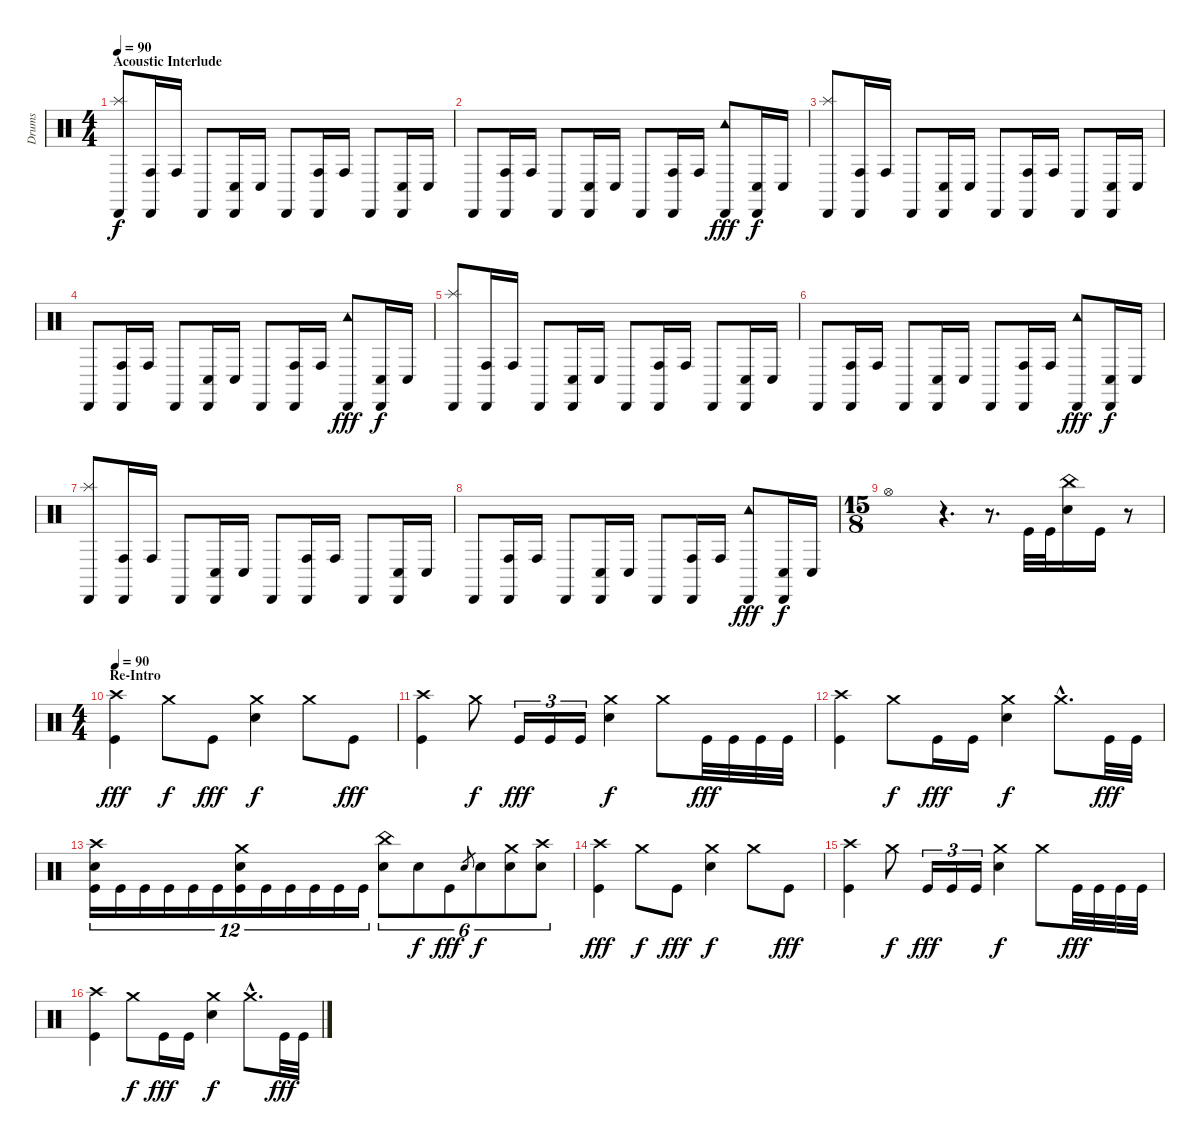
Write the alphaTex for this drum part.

\track ("Drums" "Drums") {instrument percussion}
\staff {score}
\articulation defaults
\ts (4 4)
\section ("" "Acoustic Interlude")
\tempo 90
\clef neutral
\ks c
("Cabasa (hit)" "Splash (hit)").8{dy f} ("Cabasa (hit)" "Conga high (hit)").16 "Conga high (hit)".16 "Cabasa (hit)".8 ("Cabasa (hit)" "Conga low (hit)").16 "Conga low (hit)".16 "Cabasa (hit)".8 ("Cabasa (hit)" "Conga high (hit)").16 "Conga high (hit)".16 "Cabasa (hit)".8 ("Cabasa (hit)" "Conga low (hit)").16 "Conga low (hit)".16 |
"Cabasa (hit)".8 ("Cabasa (hit)" "Conga high (hit)").16 "Conga high (hit)".16 "Cabasa (hit)".8 ("Cabasa (hit)" "Conga low (hit)").16 "Conga low (hit)".16 "Cabasa (hit)".8 ("Cabasa (hit)" "Conga high (hit)").16 "Conga high (hit)".16 ("Cabasa (hit)" "Tambourine (hit)").8{dy fff} ("Cabasa (hit)" "Conga low (hit)").16{dy f} "Conga low (hit)".16 |
("Cabasa (hit)" "Splash (hit)").8 ("Cabasa (hit)" "Conga high (hit)").16 "Conga high (hit)".16 "Cabasa (hit)".8 ("Cabasa (hit)" "Conga low (hit)").16 "Conga low (hit)".16 "Cabasa (hit)".8 ("Cabasa (hit)" "Conga high (hit)").16 "Conga high (hit)".16 "Cabasa (hit)".8 ("Cabasa (hit)" "Conga low (hit)").16 "Conga low (hit)".16 |
"Cabasa (hit)".8 ("Cabasa (hit)" "Conga high (hit)").16 "Conga high (hit)".16 "Cabasa (hit)".8 ("Cabasa (hit)" "Conga low (hit)").16 "Conga low (hit)".16 "Cabasa (hit)".8 ("Cabasa (hit)" "Conga high (hit)").16 "Conga high (hit)".16 ("Cabasa (hit)" "Tambourine (hit)").8{dy fff} ("Cabasa (hit)" "Conga low (hit)").16{dy f} "Conga low (hit)".16 |
("Cabasa (hit)" "Splash (hit)").8 ("Cabasa (hit)" "Conga high (hit)").16 "Conga high (hit)".16 "Cabasa (hit)".8 ("Cabasa (hit)" "Conga low (hit)").16 "Conga low (hit)".16 "Cabasa (hit)".8 ("Cabasa (hit)" "Conga high (hit)").16 "Conga high (hit)".16 "Cabasa (hit)".8 ("Cabasa (hit)" "Conga low (hit)").16 "Conga low (hit)".16 |
"Cabasa (hit)".8 ("Cabasa (hit)" "Conga high (hit)").16 "Conga high (hit)".16 "Cabasa (hit)".8 ("Cabasa (hit)" "Conga low (hit)").16 "Conga low (hit)".16 "Cabasa (hit)".8 ("Cabasa (hit)" "Conga high (hit)").16 "Conga high (hit)".16 ("Cabasa (hit)" "Tambourine (hit)").8{dy fff} ("Cabasa (hit)" "Conga low (hit)").16{dy f} "Conga low (hit)".16 |
("Cabasa (hit)" "Splash (hit)").8 ("Cabasa (hit)" "Conga high (hit)").16 "Conga high (hit)".16 "Cabasa (hit)".8 ("Cabasa (hit)" "Conga low (hit)").16 "Conga low (hit)".16 "Cabasa (hit)".8 ("Cabasa (hit)" "Conga high (hit)").16 "Conga high (hit)".16 "Cabasa (hit)".8 ("Cabasa (hit)" "Conga low (hit)").16 "Conga low (hit)".16 |
"Cabasa (hit)".8 ("Cabasa (hit)" "Conga high (hit)").16 "Conga high (hit)".16 "Cabasa (hit)".8 ("Cabasa (hit)" "Conga low (hit)").16 "Conga low (hit)".16 "Cabasa (hit)".8 ("Cabasa (hit)" "Conga high (hit)").16 "Conga high (hit)".16 ("Cabasa (hit)" "Tambourine (hit)").8{dy fff} ("Cabasa (hit)" "Conga low (hit)").16{dy f} "Conga low (hit)".16 |
\ts (15 8)
"Hi-Hat (open)".1 r.4{d} r.8{d} "Kick (hit)".32 "Kick (hit)".32 ("China (hit)" "Electric Snare (hit)").16 "Kick (hit)".16 r.8 |
\ts (4 4)
\section ("" "Re-Intro")
\tempo 90
("Crash high (hit)" "Kick (hit)").4{dy fff volume 14} "Crash medium (hit)".8{dy f} "Kick (hit)".8{dy fff} ("Crash medium (hit)" "Electric Snare (hit)").4{dy f} "Crash medium (hit)".8 "Kick (hit)".8{dy fff} |
("Crash high (hit)" "Kick (hit)").4 "Crash medium (hit)".8{dy f} "Kick (hit)".16{tu (3 2) dy fff} "Kick (hit)".16{tu (3 2)} "Kick (hit)".16{tu (3 2)} ("Crash medium (hit)" "Electric Snare (hit)").4{dy f} "Crash medium (hit)".8 "Kick (hit)".32{dy fff} "Kick (hit)".32 "Kick (hit)".32 "Kick (hit)".32 |
("Crash high (hit)" "Kick (hit)").4 "Crash medium (hit)".8{dy f} "Kick (hit)".16{dy fff} "Kick (hit)".16 ("Crash medium (hit)" "Electric Snare (hit)").4{dy f} "Crash medium (hit)"{hac}.8{d} "Kick (hit)".32{dy fff} "Kick (hit)".32 |
("Crash high (hit)" "Electric Snare (hit)" "Kick (hit)").16{tu (12 8)} "Kick (hit)".16{tu (12 8)} "Kick (hit)".16{tu (12 8)} "Kick (hit)".16{tu (12 8)} "Kick (hit)".16{tu (12 8)} "Kick (hit)".16{tu (12 8)} ("Crash medium (hit)" "Electric Snare (hit)" "Kick (hit)").16{tu (12 8)} "Kick (hit)".16{tu (12 8)} "Kick (hit)".16{tu (12 8)} "Kick (hit)".16{tu (12 8)} "Kick (hit)".16{tu (12 8)} "Kick (hit)".16{tu (12 8)} ("China (hit)" "Electric Snare (hit)").8{tu (6 4)} "Electric Snare (hit)".8{tu (6 4) dy f} "Kick (hit)".8{tu (6 4) dy fff} "Electric Snare (hit)".8{gr} "Electric Snare (hit)".8{tu (6 4) dy f} ("Crash medium (hit)" "Electric Snare (hit)").8{tu (6 4)} ("Crash high (hit)" "Electric Snare (hit)").8{tu (6 4)} |
("Crash high (hit)" "Kick (hit)").4{dy fff volume 14} "Crash medium (hit)".8{dy f} "Kick (hit)".8{dy fff} ("Crash medium (hit)" "Electric Snare (hit)").4{dy f} "Crash medium (hit)".8 "Kick (hit)".8{dy fff} |
("Crash high (hit)" "Kick (hit)").4 "Crash medium (hit)".8{dy f} "Kick (hit)".16{tu (3 2) dy fff} "Kick (hit)".16{tu (3 2)} "Kick (hit)".16{tu (3 2)} ("Crash medium (hit)" "Electric Snare (hit)").4{dy f} "Crash medium (hit)".8 "Kick (hit)".32{dy fff} "Kick (hit)".32 "Kick (hit)".32 "Kick (hit)".32 |
("Crash high (hit)" "Kick (hit)").4 "Crash medium (hit)".8{dy f} "Kick (hit)".16{dy fff} "Kick (hit)".16 ("Crash medium (hit)" "Electric Snare (hit)").4{dy f} "Crash medium (hit)"{hac}.8{d} "Kick (hit)".32{dy fff} "Kick (hit)".32
